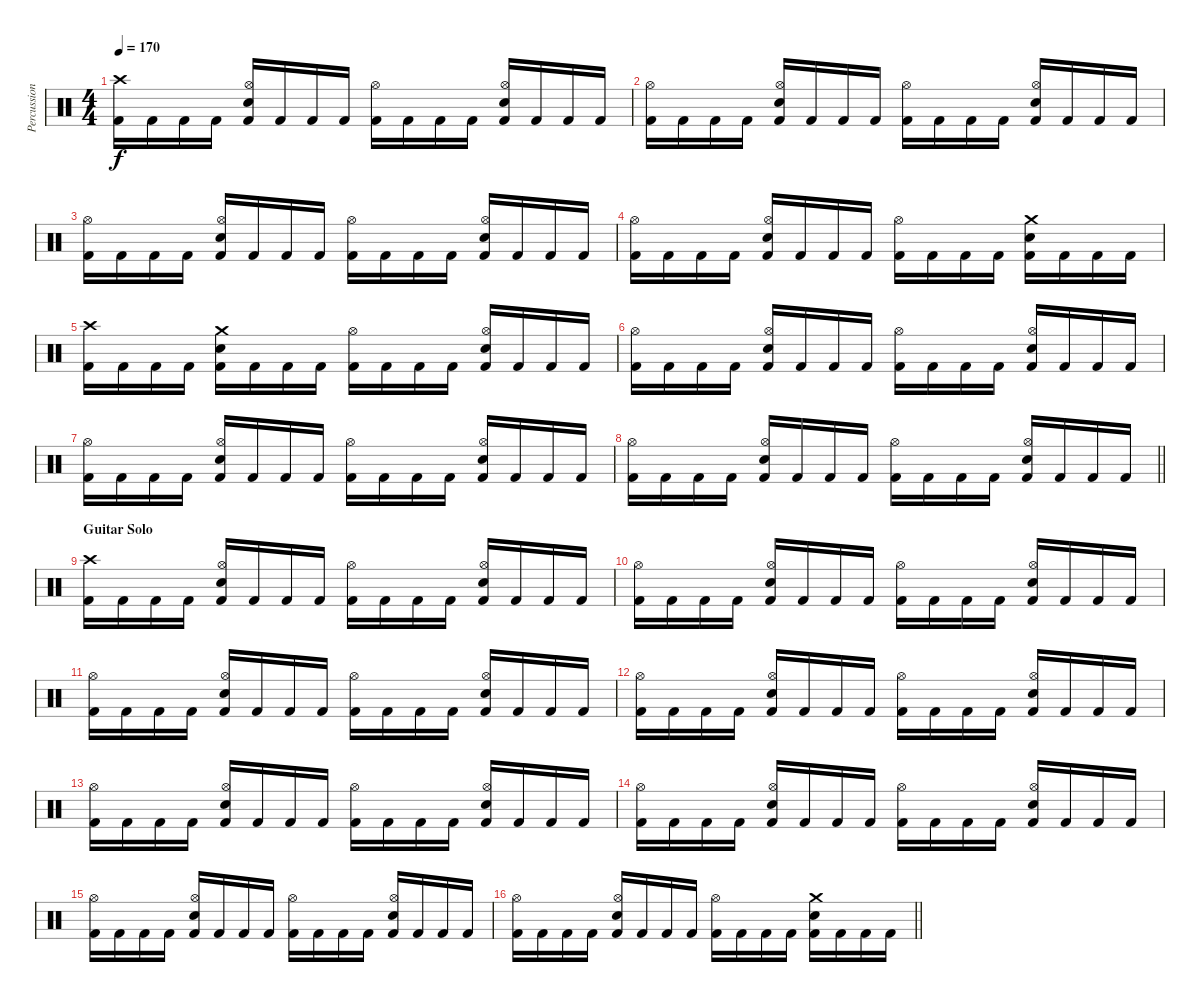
\track ("Percussions" "Percussion") {instrument percussion}
\staff {score}
\articulation defaults
\ts (4 4)
\tempo 170
\clef neutral
\ks c
("Crash high (hit)" "Kick (hit) 2").16{dy f} "Kick (hit) 2".16 "Kick (hit) 2".16 "Kick (hit) 2".16 ("Hi-Hat (open)" "Electric Snare (hit)" "Kick (hit) 2").16 "Kick (hit) 2".16 "Kick (hit) 2".16 "Kick (hit) 2".16 ("Hi-Hat (open)" "Kick (hit) 2").16 "Kick (hit) 2".16 "Kick (hit) 2".16 "Kick (hit) 2".16 ("Hi-Hat (open)" "Electric Snare (hit)" "Kick (hit) 2").16 "Kick (hit) 2".16 "Kick (hit) 2".16 "Kick (hit) 2".16 |
("Hi-Hat (open)" "Kick (hit) 2").16 "Kick (hit) 2".16 "Kick (hit) 2".16 "Kick (hit) 2".16 ("Hi-Hat (open)" "Electric Snare (hit)" "Kick (hit) 2").16 "Kick (hit) 2".16 "Kick (hit) 2".16 "Kick (hit) 2".16 ("Hi-Hat (open)" "Kick (hit) 2").16 "Kick (hit) 2".16 "Kick (hit) 2".16 "Kick (hit) 2".16 ("Hi-Hat (open)" "Electric Snare (hit)" "Kick (hit) 2").16 "Kick (hit) 2".16 "Kick (hit) 2".16 "Kick (hit) 2".16 |
("Hi-Hat (open)" "Kick (hit) 2").16 "Kick (hit) 2".16 "Kick (hit) 2".16 "Kick (hit) 2".16 ("Hi-Hat (open)" "Electric Snare (hit)" "Kick (hit) 2").16 "Kick (hit) 2".16 "Kick (hit) 2".16 "Kick (hit) 2".16 ("Hi-Hat (open)" "Kick (hit) 2").16 "Kick (hit) 2".16 "Kick (hit) 2".16 "Kick (hit) 2".16 ("Hi-Hat (open)" "Electric Snare (hit)" "Kick (hit) 2").16 "Kick (hit) 2".16 "Kick (hit) 2".16 "Kick (hit) 2".16 |
("Hi-Hat (open)" "Kick (hit) 2").16 "Kick (hit) 2".16 "Kick (hit) 2".16 "Kick (hit) 2".16 ("Hi-Hat (open)" "Electric Snare (hit)" "Kick (hit) 2").16 "Kick (hit) 2".16 "Kick (hit) 2".16 "Kick (hit) 2".16 ("Hi-Hat (open)" "Kick (hit) 2").16 "Kick (hit) 2".16 "Kick (hit) 2".16 "Kick (hit) 2".16 ("Crash medium (hit)" "Electric Snare (hit)" "Kick (hit) 2").16 "Kick (hit) 2".16 "Kick (hit) 2".16 "Kick (hit) 2".16 |
("Crash high (hit)" "Kick (hit) 2").16 "Kick (hit) 2".16 "Kick (hit) 2".16 "Kick (hit) 2".16 ("Crash medium (hit)" "Electric Snare (hit)" "Kick (hit) 2").16 "Kick (hit) 2".16 "Kick (hit) 2".16 "Kick (hit) 2".16 ("Hi-Hat (open)" "Kick (hit) 2").16 "Kick (hit) 2".16 "Kick (hit) 2".16 "Kick (hit) 2".16 ("Hi-Hat (open)" "Electric Snare (hit)" "Kick (hit) 2").16 "Kick (hit) 2".16 "Kick (hit) 2".16 "Kick (hit) 2".16 |
("Hi-Hat (open)" "Kick (hit) 2").16 "Kick (hit) 2".16 "Kick (hit) 2".16 "Kick (hit) 2".16 ("Hi-Hat (open)" "Electric Snare (hit)" "Kick (hit) 2").16 "Kick (hit) 2".16 "Kick (hit) 2".16 "Kick (hit) 2".16 ("Hi-Hat (open)" "Kick (hit) 2").16 "Kick (hit) 2".16 "Kick (hit) 2".16 "Kick (hit) 2".16 ("Hi-Hat (open)" "Electric Snare (hit)" "Kick (hit) 2").16 "Kick (hit) 2".16 "Kick (hit) 2".16 "Kick (hit) 2".16 |
("Hi-Hat (open)" "Kick (hit) 2").16 "Kick (hit) 2".16 "Kick (hit) 2".16 "Kick (hit) 2".16 ("Hi-Hat (open)" "Electric Snare (hit)" "Kick (hit) 2").16 "Kick (hit) 2".16 "Kick (hit) 2".16 "Kick (hit) 2".16 ("Hi-Hat (open)" "Kick (hit) 2").16 "Kick (hit) 2".16 "Kick (hit) 2".16 "Kick (hit) 2".16 ("Hi-Hat (open)" "Electric Snare (hit)" "Kick (hit) 2").16 "Kick (hit) 2".16 "Kick (hit) 2".16 "Kick (hit) 2".16 |
\barLineRight lightlight
("Hi-Hat (open)" "Kick (hit) 2").16 "Kick (hit) 2".16 "Kick (hit) 2".16 "Kick (hit) 2".16 ("Hi-Hat (open)" "Electric Snare (hit)" "Kick (hit) 2").16 "Kick (hit) 2".16 "Kick (hit) 2".16 "Kick (hit) 2".16 ("Hi-Hat (open)" "Kick (hit) 2").16 "Kick (hit) 2".16 "Kick (hit) 2".16 "Kick (hit) 2".16 ("Hi-Hat (open)" "Electric Snare (hit)" "Kick (hit) 2").16 "Kick (hit) 2".16 "Kick (hit) 2".16 "Kick (hit) 2".16 |
\section ("" "Guitar Solo")
("Crash high (hit)" "Kick (hit) 2").16 "Kick (hit) 2".16 "Kick (hit) 2".16 "Kick (hit) 2".16 ("Hi-Hat (open)" "Electric Snare (hit)" "Kick (hit) 2").16 "Kick (hit) 2".16 "Kick (hit) 2".16 "Kick (hit) 2".16 ("Hi-Hat (open)" "Kick (hit) 2").16 "Kick (hit) 2".16 "Kick (hit) 2".16 "Kick (hit) 2".16 ("Hi-Hat (open)" "Electric Snare (hit)" "Kick (hit) 2").16 "Kick (hit) 2".16 "Kick (hit) 2".16 "Kick (hit) 2".16 |
("Hi-Hat (open)" "Kick (hit) 2").16 "Kick (hit) 2".16 "Kick (hit) 2".16 "Kick (hit) 2".16 ("Hi-Hat (open)" "Electric Snare (hit)" "Kick (hit) 2").16 "Kick (hit) 2".16 "Kick (hit) 2".16 "Kick (hit) 2".16 ("Hi-Hat (open)" "Kick (hit) 2").16 "Kick (hit) 2".16 "Kick (hit) 2".16 "Kick (hit) 2".16 ("Hi-Hat (open)" "Electric Snare (hit)" "Kick (hit) 2").16 "Kick (hit) 2".16 "Kick (hit) 2".16 "Kick (hit) 2".16 |
("Hi-Hat (open)" "Kick (hit) 2").16 "Kick (hit) 2".16 "Kick (hit) 2".16 "Kick (hit) 2".16 ("Hi-Hat (open)" "Electric Snare (hit)" "Kick (hit) 2").16 "Kick (hit) 2".16 "Kick (hit) 2".16 "Kick (hit) 2".16 ("Hi-Hat (open)" "Kick (hit) 2").16 "Kick (hit) 2".16 "Kick (hit) 2".16 "Kick (hit) 2".16 ("Hi-Hat (open)" "Electric Snare (hit)" "Kick (hit) 2").16 "Kick (hit) 2".16 "Kick (hit) 2".16 "Kick (hit) 2".16 |
("Hi-Hat (open)" "Kick (hit) 2").16 "Kick (hit) 2".16 "Kick (hit) 2".16 "Kick (hit) 2".16 ("Hi-Hat (open)" "Electric Snare (hit)" "Kick (hit) 2").16 "Kick (hit) 2".16 "Kick (hit) 2".16 "Kick (hit) 2".16 ("Hi-Hat (open)" "Kick (hit) 2").16 "Kick (hit) 2".16 "Kick (hit) 2".16 "Kick (hit) 2".16 ("Hi-Hat (open)" "Electric Snare (hit)" "Kick (hit) 2").16 "Kick (hit) 2".16 "Kick (hit) 2".16 "Kick (hit) 2".16 |
("Hi-Hat (open)" "Kick (hit) 2").16 "Kick (hit) 2".16 "Kick (hit) 2".16 "Kick (hit) 2".16 ("Hi-Hat (open)" "Electric Snare (hit)" "Kick (hit) 2").16 "Kick (hit) 2".16 "Kick (hit) 2".16 "Kick (hit) 2".16 ("Hi-Hat (open)" "Kick (hit) 2").16 "Kick (hit) 2".16 "Kick (hit) 2".16 "Kick (hit) 2".16 ("Hi-Hat (open)" "Electric Snare (hit)" "Kick (hit) 2").16 "Kick (hit) 2".16 "Kick (hit) 2".16 "Kick (hit) 2".16 |
("Hi-Hat (open)" "Kick (hit) 2").16 "Kick (hit) 2".16 "Kick (hit) 2".16 "Kick (hit) 2".16 ("Hi-Hat (open)" "Electric Snare (hit)" "Kick (hit) 2").16 "Kick (hit) 2".16 "Kick (hit) 2".16 "Kick (hit) 2".16 ("Hi-Hat (open)" "Kick (hit) 2").16 "Kick (hit) 2".16 "Kick (hit) 2".16 "Kick (hit) 2".16 ("Hi-Hat (open)" "Electric Snare (hit)" "Kick (hit) 2").16 "Kick (hit) 2".16 "Kick (hit) 2".16 "Kick (hit) 2".16 |
("Hi-Hat (open)" "Kick (hit) 2").16 "Kick (hit) 2".16 "Kick (hit) 2".16 "Kick (hit) 2".16 ("Hi-Hat (open)" "Electric Snare (hit)" "Kick (hit) 2").16 "Kick (hit) 2".16 "Kick (hit) 2".16 "Kick (hit) 2".16 ("Hi-Hat (open)" "Kick (hit) 2").16 "Kick (hit) 2".16 "Kick (hit) 2".16 "Kick (hit) 2".16 ("Hi-Hat (open)" "Electric Snare (hit)" "Kick (hit) 2").16 "Kick (hit) 2".16 "Kick (hit) 2".16 "Kick (hit) 2".16 |
\barLineRight lightlight
("Hi-Hat (open)" "Kick (hit) 2").16 "Kick (hit) 2".16 "Kick (hit) 2".16 "Kick (hit) 2".16 ("Hi-Hat (open)" "Electric Snare (hit)" "Kick (hit) 2").16 "Kick (hit) 2".16 "Kick (hit) 2".16 "Kick (hit) 2".16 ("Hi-Hat (open)" "Kick (hit) 2").16 "Kick (hit) 2".16 "Kick (hit) 2".16 "Kick (hit) 2".16 ("Crash medium (hit)" "Electric Snare (hit)" "Kick (hit) 2").16 "Kick (hit) 2".16 "Kick (hit) 2".16 "Kick (hit) 2".16
